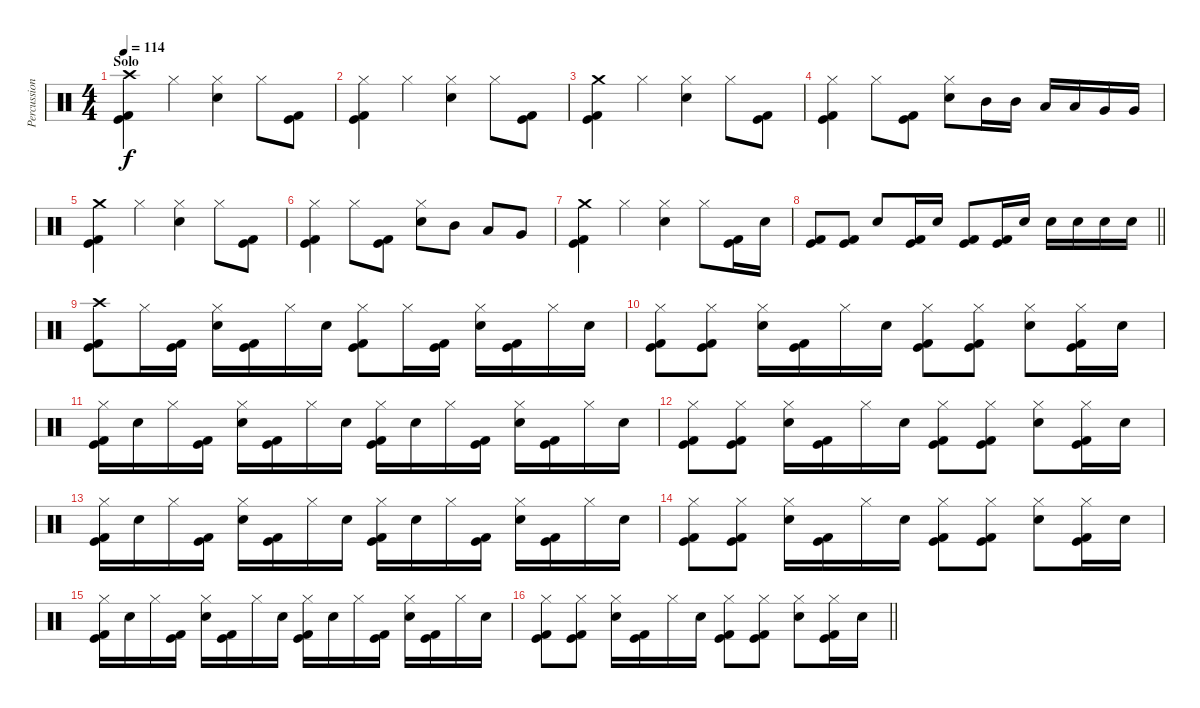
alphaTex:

\track ("Percussion" "Percussion") {instrument percussion}
\staff {score}
\articulation defaults
\ts (4 4)
\section ("" "Solo")
\tempo 114
\clef neutral
\ks c
("Crash high (hit)" "Kick (hit)" "Kick (hit) 2").4{dy f} "Hi-Hat (closed)".4 ("Hi-Hat (closed)" "Electric Snare (hit)").4 "Hi-Hat (closed)".8 ("Kick (hit)" "Kick (hit) 2").8 |
("Hi-Hat (closed)" "Kick (hit)" "Kick (hit) 2").4 "Hi-Hat (closed)".4 ("Hi-Hat (closed)" "Electric Snare (hit)").4 "Hi-Hat (closed)".8 ("Kick (hit)" "Kick (hit) 2").8 |
("Crash medium (hit)" "Kick (hit)" "Kick (hit) 2").4 "Hi-Hat (closed)".4 ("Hi-Hat (closed)" "Electric Snare (hit)").4 "Hi-Hat (closed)".8 ("Kick (hit)" "Kick (hit) 2").8 |
("Hi-Hat (closed)" "Kick (hit)" "Kick (hit) 2").4 "Hi-Hat (closed)".8 ("Kick (hit)" "Kick (hit) 2").8 ("Hi-Hat (closed)" "Electric Snare (hit)").8 "Mid Tom (hit)".16 "Mid Tom (hit)".16 "Low Tom (hit)".16 "Low Tom (hit)".16 "Very Low Tom (hit)".16 "Very Low Tom (hit)".16 |
("Crash medium (hit)" "Kick (hit)" "Kick (hit) 2").4 "Hi-Hat (closed)".4 ("Hi-Hat (closed)" "Electric Snare (hit)").4 "Hi-Hat (closed)".8 ("Kick (hit)" "Kick (hit) 2").8 |
("Hi-Hat (closed)" "Kick (hit)" "Kick (hit) 2").4 "Hi-Hat (closed)".8 ("Kick (hit)" "Kick (hit) 2").8 ("Hi-Hat (closed)" "Electric Snare (hit)").8 "Mid Tom (hit)".8 "Low Tom (hit)".8 "Very Low Tom (hit)".8 |
("Crash medium (hit)" "Kick (hit)" "Kick (hit) 2").4 "Hi-Hat (closed)".4 ("Hi-Hat (closed)" "Electric Snare (hit)").4 "Hi-Hat (closed)".8 ("Kick (hit)" "Kick (hit) 2").16 "Electric Snare (hit)".16 |
\barLineRight lightlight
("Kick (hit)" "Kick (hit) 2").8 ("Kick (hit)" "Kick (hit) 2").8 "Electric Snare (hit)".8 ("Kick (hit)" "Kick (hit) 2").16 "Electric Snare (hit)".16 ("Kick (hit)" "Kick (hit) 2").8 ("Kick (hit)" "Kick (hit) 2").16 "Electric Snare (hit)".16 "Electric Snare (hit)".16 "Electric Snare (hit)".16 "Electric Snare (hit)".16 "Electric Snare (hit)".16 |
\section ("" "")
("Crash high (hit)" "Kick (hit)" "Kick (hit) 2").8 "Hi-Hat (closed)".16 ("Kick (hit)" "Kick (hit) 2").16 ("Hi-Hat (closed)" "Electric Snare (hit)").16 ("Kick (hit)" "Kick (hit) 2").16 "Hi-Hat (closed)".16 "Electric Snare (hit)".16 ("Hi-Hat (closed)" "Kick (hit)" "Kick (hit) 2").8 "Hi-Hat (closed)".16 ("Kick (hit)" "Kick (hit) 2").16 ("Hi-Hat (closed)" "Electric Snare (hit)").16 ("Kick (hit)" "Kick (hit) 2").16 "Hi-Hat (closed)".16 "Electric Snare (hit)".16 |
("Hi-Hat (closed)" "Kick (hit)" "Kick (hit) 2").8 ("Hi-Hat (closed)" "Kick (hit)" "Kick (hit) 2").8 ("Hi-Hat (closed)" "Electric Snare (hit)").16 ("Kick (hit)" "Kick (hit) 2").16 "Hi-Hat (closed)".16 "Electric Snare (hit)".16 ("Hi-Hat (closed)" "Kick (hit)" "Kick (hit) 2").8 ("Hi-Hat (closed)" "Kick (hit)" "Kick (hit) 2").8 ("Hi-Hat (closed)" "Electric Snare (hit)").8 ("Hi-Hat (closed)" "Kick (hit)" "Kick (hit) 2").16 "Electric Snare (hit)".16 |
("Hi-Hat (closed)" "Kick (hit)" "Kick (hit) 2").16 "Electric Snare (hit)".16 "Hi-Hat (closed)".16 ("Kick (hit)" "Kick (hit) 2").16 ("Hi-Hat (closed)" "Electric Snare (hit)").16 ("Kick (hit)" "Kick (hit) 2").16 "Hi-Hat (closed)".16 "Electric Snare (hit)".16 ("Hi-Hat (closed)" "Kick (hit)" "Kick (hit) 2").16 "Electric Snare (hit)".16 "Hi-Hat (closed)".16 ("Kick (hit)" "Kick (hit) 2").16 ("Hi-Hat (closed)" "Electric Snare (hit)").16 ("Kick (hit)" "Kick (hit) 2").16 "Hi-Hat (closed)".16 "Electric Snare (hit)".16 |
("Hi-Hat (closed)" "Kick (hit)" "Kick (hit) 2").8 ("Hi-Hat (closed)" "Kick (hit)" "Kick (hit) 2").8 ("Hi-Hat (closed)" "Electric Snare (hit)").16 ("Kick (hit)" "Kick (hit) 2").16 "Hi-Hat (closed)".16 "Electric Snare (hit)".16 ("Hi-Hat (closed)" "Kick (hit)" "Kick (hit) 2").8 ("Hi-Hat (closed)" "Kick (hit)" "Kick (hit) 2").8 ("Hi-Hat (closed)" "Electric Snare (hit)").8 ("Hi-Hat (closed)" "Kick (hit)" "Kick (hit) 2").16 "Electric Snare (hit)".16 |
("Hi-Hat (closed)" "Kick (hit)" "Kick (hit) 2").16 "Electric Snare (hit)".16 "Hi-Hat (closed)".16 ("Kick (hit)" "Kick (hit) 2").16 ("Hi-Hat (closed)" "Electric Snare (hit)").16 ("Kick (hit)" "Kick (hit) 2").16 "Hi-Hat (closed)".16 "Electric Snare (hit)".16 ("Hi-Hat (closed)" "Kick (hit)" "Kick (hit) 2").16 "Electric Snare (hit)".16 "Hi-Hat (closed)".16 ("Kick (hit)" "Kick (hit) 2").16 ("Hi-Hat (closed)" "Electric Snare (hit)").16 ("Kick (hit)" "Kick (hit) 2").16 "Hi-Hat (closed)".16 "Electric Snare (hit)".16 |
("Hi-Hat (closed)" "Kick (hit)" "Kick (hit) 2").8 ("Hi-Hat (closed)" "Kick (hit)" "Kick (hit) 2").8 ("Hi-Hat (closed)" "Electric Snare (hit)").16 ("Kick (hit)" "Kick (hit) 2").16 "Hi-Hat (closed)".16 "Electric Snare (hit)".16 ("Hi-Hat (closed)" "Kick (hit)" "Kick (hit) 2").8 ("Hi-Hat (closed)" "Kick (hit)" "Kick (hit) 2").8 ("Hi-Hat (closed)" "Electric Snare (hit)").8 ("Hi-Hat (closed)" "Kick (hit)" "Kick (hit) 2").16 "Electric Snare (hit)".16 |
("Hi-Hat (closed)" "Kick (hit)" "Kick (hit) 2").16 "Electric Snare (hit)".16 "Hi-Hat (closed)".16 ("Kick (hit)" "Kick (hit) 2").16 ("Hi-Hat (closed)" "Electric Snare (hit)").16 ("Kick (hit)" "Kick (hit) 2").16 "Hi-Hat (closed)".16 "Electric Snare (hit)".16 ("Hi-Hat (closed)" "Kick (hit)" "Kick (hit) 2").16 "Electric Snare (hit)".16 "Hi-Hat (closed)".16 ("Kick (hit)" "Kick (hit) 2").16 ("Hi-Hat (closed)" "Electric Snare (hit)").16 ("Kick (hit)" "Kick (hit) 2").16 "Hi-Hat (closed)".16 "Electric Snare (hit)".16 |
\barLineRight lightlight
("Hi-Hat (closed)" "Kick (hit)" "Kick (hit) 2").8 ("Hi-Hat (closed)" "Kick (hit)" "Kick (hit) 2").8 ("Hi-Hat (closed)" "Electric Snare (hit)").16 ("Kick (hit)" "Kick (hit) 2").16 "Hi-Hat (closed)".16 "Electric Snare (hit)".16 ("Hi-Hat (closed)" "Kick (hit)" "Kick (hit) 2").8 ("Hi-Hat (closed)" "Kick (hit)" "Kick (hit) 2").8 ("Hi-Hat (closed)" "Electric Snare (hit)").8 ("Hi-Hat (closed)" "Kick (hit)" "Kick (hit) 2").16 "Electric Snare (hit)".16
